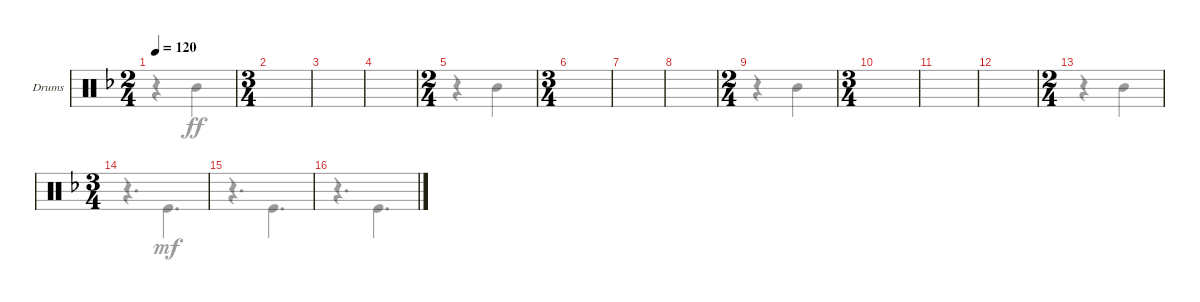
\defaultSystemsLayout 4
\bracketExtendMode groupsimilarinstruments
\firstSystemTrackNameOrientation horizontal
\otherSystemsTrackNameOrientation horizontal
\track ("Drumkit" "Drums") {instrument percussion}
\staff {score}
\articulation defaults
\voice
\ts (2 4)
\tempo 120
\clef neutral
\ks f
|
\ts (3 4)
|
|
|
\ts (2 4)
|
\ts (3 4)
|
|
|
\ts (2 4)
|
\ts (3 4)
|
|
|
\ts (2 4)
|
\ts (3 4)
|
|
\voice
\clef neutral
\ks f
r.4{dy ff} "Mid Tom (hit)".4 |
|
|
|
r.4 "Mid Tom (hit)".4 |
|
|
|
r.4 "Mid Tom (hit)".4 |
|
|
|
r.4 "Mid Tom (hit)".4 |
|
|
\voice
\clef neutral
\ottava regular
\simile none
\ks f
|
|
|
|
|
|
|
|
|
|
|
|
|
r.4{d} "Kick (hit)".4{d dy mf} |
r.4{d} "Kick (hit)".4{d} |
r.4{d} "Kick (hit)".4{d}
